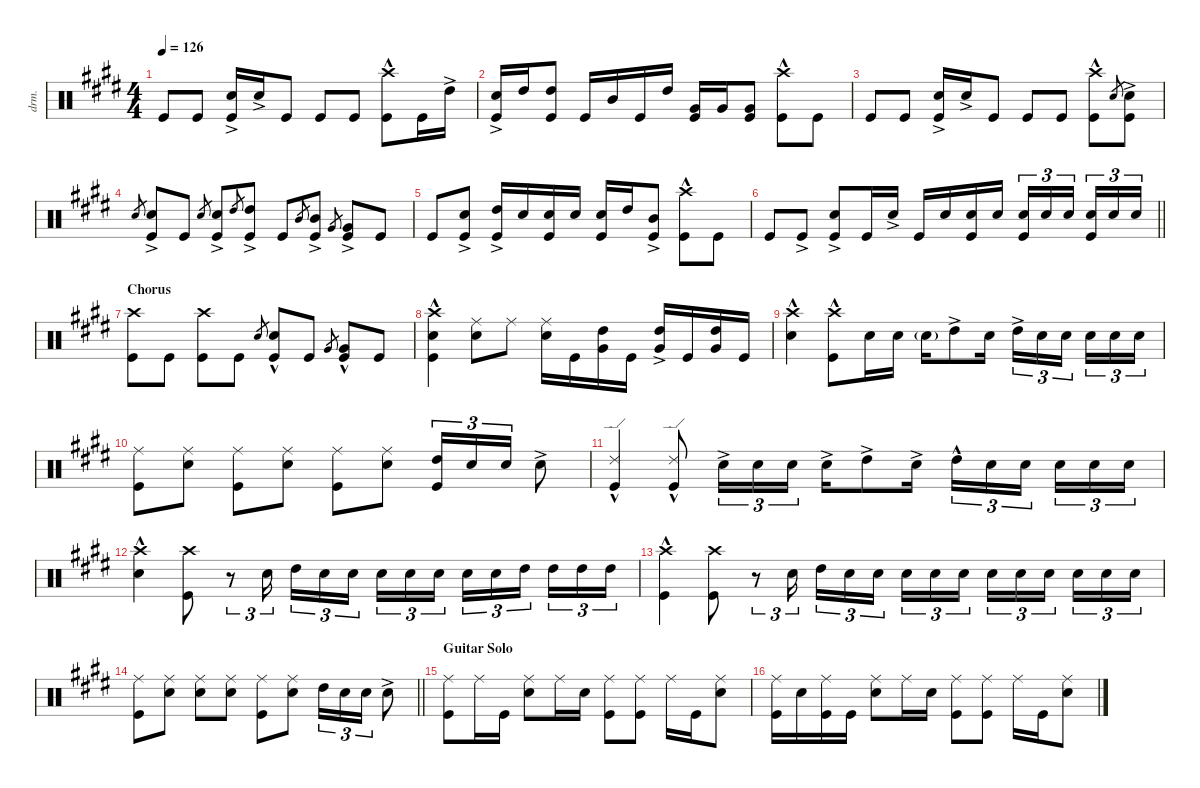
\defaultSystemsLayout 4
\hideDynamics
\bracketExtendMode nobrackets
\otherSystemsTrackNameOrientation horizontal
\track ("Mitch" "drm.") {instrument percussion}
\staff {score}
\articulation defaults
\ts (4 4)
\tempo 126
\clef neutral
\ks e "Kick (hit)"{acc forcenatural}.8{dy f beam Up} "Kick (hit)"{acc forcenatural}.8{beam Up}
("Snare (hit) 2"{ac acc forcenatural} "Kick (hit)"{acc forcenatural}).16{beam Up} "Snare (hit) 2"{ac acc forcenatural}.16{beam Up} "Kick (hit)"{acc forcenatural}.8{beam Up} "Kick (hit)"{acc forcenatural}.8{beam Up} "Kick (hit)"{acc forcenatural}.8{beam Up} ("Crash high (hit)"{hac acc forcenatural} "Kick (hit)"{acc forcenatural}).8{beam Down} "Kick (hit)"{acc forcenatural}.16{beam Down} "High Tom (hit)"{ac acc forcenatural}.16{beam Down} |
("Snare (hit) 2"{ac acc forcenatural} "Kick (hit)"{acc forcenatural}).16{beam Up} "High Tom (hit)"{acc forcenatural}.16{beam Up} ("High Tom (hit)"{acc forcenatural} "Kick (hit)"{acc forcenatural}).8{beam Up} "Kick (hit)"{acc forcenatural}.16{beam Up} "Mid Tom (hit)"{acc forcenatural}.16{beam Up} "Kick (hit)"{acc forcenatural}.16{beam Up} "High Tom (hit)"{acc forcenatural}.16{beam Up} ("Very Low Tom (hit)"{acc forcenatural} "Kick (hit)"{acc forcenatural}).16{beam Up} "Very Low Tom (hit)"{acc forcenatural}.16{beam Up} ("Very Low Tom (hit)"{acc forcenatural} "Kick (hit)"{acc forcenatural}).8{beam Up} ("Crash high (hit)"{hac acc forcenatural} "Kick (hit)"{acc forcenatural}).8{beam Down} "Kick (hit)"{acc forcenatural}.8{beam Down} |
"Kick (hit)"{acc forcenatural}.8{beam Up} "Kick (hit)"{acc forcenatural}.8{beam Up} ("Snare (hit) 2"{ac acc forcenatural} "Kick (hit)"{acc forcenatural}).16{beam Up} "Snare (hit) 2"{ac acc forcenatural}.16{beam Up} "Kick (hit)"{acc forcenatural}.8{beam Up} "Kick (hit)"{acc forcenatural}.8{beam Up} "Kick (hit)"{acc forcenatural}.8{beam Up} ("Crash high (hit)"{hac acc forcenatural} "Kick (hit)"{acc forcenatural}).8{beam Down} "Snare (hit) 2"{acc forcenatural}.8{gr beam Up} ("Snare (hit) 2"{ac acc forcenatural} "Kick (hit)"{acc forcenatural}).8{beam Down} |
"Snare (hit) 2"{acc forcenatural}.8{gr beam Up} ("Snare (hit) 2"{ac acc forcenatural} "Kick (hit)"{acc forcenatural}).8{beam Up} "Kick (hit)"{acc forcenatural}.8{beam Up} "Snare (hit) 2"{acc forcenatural}.8{gr beam Up} ("Snare (hit) 2"{ac acc forcenatural} "Kick (hit)"{acc forcenatural}).8{beam Up} "High Tom (hit)"{acc forcenatural}.8{gr beam Up} ("High Tom (hit)"{ac acc forcenatural} "Kick (hit)"{acc forcenatural}).8{beam Up} "Kick (hit)"{acc forcenatural}.8{beam Up} "Mid Tom (hit)"{acc forcenatural}.8{gr beam Up} ("Mid Tom (hit)"{ac acc forcenatural} "Kick (hit)"{acc forcenatural}).8{beam Up} "Very Low Tom (hit)"{acc forcenatural}.8{gr beam Up} ("Very Low Tom (hit)"{ac acc forcenatural} "Kick (hit)"{acc forcenatural}).8{beam Up} "Kick (hit)"{acc forcenatural}.8{beam Up} |
"Kick (hit)"{acc forcenatural}.8{beam Up} ("Snare (hit) 2"{ac acc forcenatural} "Kick (hit)"{acc forcenatural}).8{beam Up} ("High Tom (hit)"{ac acc forcenatural} "Kick (hit)"{acc forcenatural}).16{beam Up} "Snare (hit) 2"{acc forcenatural}.16{beam Up} ("Snare (hit) 2"{acc forcenatural} "Kick (hit)"{acc forcenatural}).16{beam Up} "Snare (hit) 2"{acc forcenatural}.16{beam Up} ("Snare (hit) 2"{acc forcenatural} "Kick (hit)"{acc forcenatural}).16{beam Up} "High Tom (hit)"{acc forcenatural}.16{beam Up} ("Mid Tom (hit)"{ac acc forcenatural} "Kick (hit)"{acc forcenatural}).8{beam Up} ("Crash high (hit)"{hac acc forcenatural} "Kick (hit)"{acc forcenatural}).8{beam Down} "Kick (hit)"{acc forcenatural}.8{beam Down} |
\barLineRight lightlight "Kick (hit)"{acc forcenatural}.8{beam Up} "Kick (hit)"{ac acc forcenatural}.8{beam Up}
("Snare (hit) 2"{ac acc forcenatural} "Kick (hit)"{acc forcenatural}).8{beam Up} "Kick (hit)"{acc forcenatural}.16{beam Up} "Snare (hit) 2"{ac acc forcenatural}.16{beam Up} "Kick (hit)"{acc forcenatural}.16{beam Up} "Snare (hit) 2"{acc forcenatural}.16{beam Up} ("Snare (hit) 2"{acc forcenatural} "Kick (hit)"{acc forcenatural}).16{beam Up} "Snare (hit) 2"{acc forcenatural}.16{beam Up} ("Snare (hit) 2"{acc forcenatural} "Kick (hit)"{acc forcenatural}).16{tu (3 2) beam Up} "Snare (hit) 2"{acc forcenatural}.16{tu (3 2) beam Up} "Snare (hit) 2"{acc forcenatural}.16{tu (3 2) beam Up} ("Snare (hit) 2"{acc forcenatural} "Kick (hit)"{acc forcenatural}).16{tu (3 2) beam Up} "Snare (hit) 2"{acc forcenatural}.16{tu (3 2) beam Up} "Snare (hit) 2"{acc forcenatural}.16{tu (3 2) beam Up} |
\section ("" "Chorus")
("Crash high (hit)"{acc forcenatural} "Kick (hit)"{acc forcenatural}).8{beam Down} "Kick (hit)"{acc forcenatural}.8{beam Down} ("Crash high (hit)"{acc forcenatural} "Kick (hit)"{acc forcenatural}).8{beam Down} "Kick (hit)"{acc forcenatural}.8{beam Down} "Snare (hit) 2"{acc forcenatural}.8{gr dy ff beam Up} ("Snare (hit) 2"{hac acc forcenatural} "Kick (hit)"{acc forcenatural}).8{dy f beam Up} "Kick (hit)"{acc forcenatural}.8{beam Up} "Very Low Tom (hit)"{acc forcenatural}.8{gr dy ff beam Up} ("Very Low Tom (hit)"{hac acc forcenatural} "Kick (hit)"{acc forcenatural}).8{beam Up} "Kick (hit)"{acc forcenatural}.8{beam Up} |
("Crash high (hit)"{hac acc forcenatural} "Snare (hit) 2"{acc forcenatural} "Kick (hit)"{acc forcenatural}).4{beam Down} ("Ride (middle)"{acc forcenatural} "Snare (hit) 2"{acc forcenatural}).8{beam Down} "Ride (middle)"{acc forcenatural}.8{beam Down} ("Ride (middle)"{acc forcenatural} "Snare (hit) 2"{acc forcenatural}).16{beam Down} "Kick (hit)"{acc forcenatural}.16{beam Down} ("High Tom (hit)"{acc forcenatural} "Very Low Tom (hit)"{acc forcenatural}).16{beam Down} "Kick (hit)"{acc forcenatural}.16{beam Down} ("High Tom (hit)"{ac acc forcenatural} "Very Low Tom (hit)"{acc forcenatural}).16{beam Up} "Kick (hit)"{acc forcenatural}.16{beam Up} ("High Tom (hit)"{acc forcenatural} "Very Low Tom (hit)"{acc forcenatural}).16{beam Up} "Kick (hit)"{acc forcenatural}.16{beam Up} |
("Crash high (hit)"{hac acc forcenatural} "Snare (hit) 2"{acc forcenatural}).4{beam Down} ("Crash high (hit)"{hac acc forcenatural} "Kick (hit)"{acc forcenatural}).8{beam Down} "Snare (hit) 2"{acc forcenatural}.16{beam Down} "Snare (hit) 2"{acc forcenatural}.16{beam Down} "Snare (hit) 2"{g acc forcenatural}.16{dy f beam Down} "High Tom (hit)"{ac acc forcenatural}.8{dy ff beam Down} "Snare (hit) 2"{acc forcenatural}.16{beam Down} "High Tom (hit)"{ac acc forcenatural}.16{tu (3 2) beam Down} "Snare (hit) 2"{acc forcenatural}.16{tu (3 2) beam Down} "Snare (hit) 2"{acc forcenatural}.16{tu (3 2) beam Down} "Snare (hit) 2"{acc forcenatural}.16{tu (3 2) beam Down} "Snare (hit) 2"{acc forcenatural}.16{tu (3 2) beam Down} "Snare (hit) 2"{acc forcenatural}.16{tu (3 2) beam Down} |
("Ride (middle)"{acc forcenatural} "Kick (hit)"{acc forcenatural}).8{beam Down} ("Ride (middle)"{acc forcenatural} "Snare (hit) 2"{acc forcenatural}).8{beam Down} ("Ride (middle)"{acc forcenatural} "Kick (hit)"{acc forcenatural}).8{beam Down} ("Ride (middle)"{acc forcenatural} "Snare (hit) 2"{acc forcenatural}).8{beam Down} ("Ride (middle)"{acc forcenatural} "Kick (hit)"{acc forcenatural}).8{beam Down} ("Ride (middle)"{acc forcenatural} "Snare (hit) 2"{acc forcenatural}).8{beam Down} ("High Tom (hit)"{acc forcenatural} "Kick (hit)"{acc forcenatural}).16{tu (3 2) beam Up} "Snare (hit) 2"{acc forcenatural}.16{tu (3 2) beam Up} "Snare (hit) 2"{acc forcenatural}.16{tu (3 2) beam Up} "Snare (hit) 2"{ac acc forcenatural}.8{beam Down} |
("Ride (edge) 2"{hac acc forcenatural} "Kick (hit)"{acc forcenatural}).4{beam Up} ("Ride (edge) 2"{hac acc forcenatural} "Kick (hit)"{acc forcenatural}).8{beam Up} "Snare (hit) 2"{ac acc forcenatural}.16{tu (3 2) beam Down} "Snare (hit) 2"{acc forcenatural}.16{tu (3 2) beam Down} "Snare (hit) 2"{acc forcenatural}.16{tu (3 2) beam Down} "Snare (hit) 2"{ac acc forcenatural}.16{beam Down} "High Tom (hit)"{ac acc forcenatural}.8{beam Down} "Snare (hit) 2"{ac acc forcenatural}.16{beam Down} "High Tom (hit)"{hac acc forcenatural}.16{tu (3 2) dy f beam Down} "Snare (hit) 2"{acc forcenatural}.16{tu (3 2) dy ff beam Down} "Snare (hit) 2"{acc forcenatural}.16{tu (3 2) beam Down} "Snare (hit) 2"{acc forcenatural}.16{tu (3 2) beam Down} "Snare (hit) 2"{acc forcenatural}.16{tu (3 2) beam Down} "Snare (hit) 2"{acc forcenatural}.16{tu (3 2) beam Down} |
("Crash high (hit)"{hac acc forcenatural} "Snare (hit) 2"{acc forcenatural}).4{beam Down} ("Crash high (hit)"{acc forcenatural} "Kick (hit)"{acc forcenatural}).8{beam Down} r.8{tu (3 2) beam Down} "Snare (hit) 2"{acc forcenatural}.16{tu (3 2) beam Down} "High Tom (hit)"{acc forcenatural}.16{tu (3 2) beam Down} "Snare (hit) 2"{acc forcenatural}.16{tu (3 2) beam Down} "Snare (hit) 2"{acc forcenatural}.16{tu (3 2) beam Down} "Snare (hit) 2"{acc forcenatural}.16{tu (3 2) beam Down} "Snare (hit) 2"{acc forcenatural}.16{tu (3 2) beam Down} "Snare (hit) 2"{acc forcenatural}.16{tu (3 2) beam Down} "Snare (hit) 2"{acc forcenatural}.16{tu (3 2) beam Down} "Snare (hit) 2"{acc forcenatural}.16{tu (3 2) beam Down} "High Tom (hit)"{acc forcenatural}.16{tu (3 2) beam Down} "High Tom (hit)"{acc forcenatural}.16{tu (3 2) beam Down} "High Tom (hit)"{acc forcenatural}.16{tu (3 2) beam Down} "High Tom (hit)"{acc forcenatural}.16{tu (3 2) beam Down} |
("Crash high (hit)"{hac acc forcenatural} "Kick (hit)"{acc forcenatural}).4{beam Down} ("Crash high (hit)"{acc forcenatural} "Kick (hit)"{acc forcenatural}).8{beam Down} r.8{tu (3 2) beam Down} "Snare (hit) 2"{acc forcenatural}.16{tu (3 2) beam Down} "High Tom (hit)"{acc forcenatural}.16{tu (3 2) beam Down} "Snare (hit) 2"{acc forcenatural}.16{tu (3 2) beam Down} "Snare (hit) 2"{acc forcenatural}.16{tu (3 2) beam Down} "Snare (hit) 2"{acc forcenatural}.16{tu (3 2) beam Down} "Snare (hit) 2"{acc forcenatural}.16{tu (3 2) beam Down} "Snare (hit) 2"{acc forcenatural}.16{tu (3 2) beam Down} "Snare (hit) 2"{acc forcenatural}.16{tu (3 2) beam Down} "Snare (hit) 2"{acc forcenatural}.16{tu (3 2) beam Down} "Snare (hit) 2"{acc forcenatural}.16{tu (3 2) beam Down} "Snare (hit) 2"{acc forcenatural}.16{tu (3 2) beam Down} "Snare (hit) 2"{acc forcenatural}.16{tu (3 2) beam Down} "Snare (hit) 2"{acc forcenatural}.16{tu (3 2) beam Down} |
\barLineRight lightlight
("Ride (middle)"{acc forcenatural} "Kick (hit)"{acc forcenatural}).8{beam Down} ("Ride (middle)"{acc forcenatural} "Snare (hit) 2"{acc forcenatural}).8{beam Down} ("Ride (middle)"{acc forcenatural} "Snare (hit) 2"{acc forcenatural}).8{beam Down} ("Ride (middle)"{acc forcenatural} "Snare (hit) 2"{acc forcenatural}).8{beam Down} ("Ride (middle)"{acc forcenatural} "Kick (hit)"{acc forcenatural}).8{beam Down} ("Ride (middle)"{acc forcenatural} "Snare (hit) 2"{acc forcenatural}).8{beam Down} "High Tom (hit)"{acc forcenatural}.16{tu (3 2) beam Down} "Snare (hit) 2"{acc forcenatural}.16{tu (3 2) beam Down} "Snare (hit) 2"{acc forcenatural}.16{tu (3 2) beam Down} "Snare (hit) 2"{ac acc forcenatural}.8{beam Down} |
\section ("" "Guitar Solo")
("Ride (middle)"{acc forcenatural} "Kick (hit)"{acc forcenatural}).8{beam Down} "Ride (middle)"{acc forcenatural}.16{beam Down} "Kick (hit)"{acc forcenatural}.16{beam Down} ("Ride (middle)"{acc forcenatural} "Snare (hit) 2"{acc forcenatural}).8{beam Down} "Ride (middle)"{acc forcenatural}.16{beam Down} "Snare (hit) 2"{acc forcenatural}.16{beam Down} ("Ride (middle)"{acc forcenatural} "Kick (hit)"{acc forcenatural}).8{beam Down} ("Ride (middle)"{acc forcenatural} "Kick (hit)"{acc forcenatural}).8{beam Down} "Ride (middle)"{acc forcenatural}.16{beam Down} "Kick (hit)"{acc forcenatural}.16{beam Down} ("Ride (middle)"{acc forcenatural} "Snare (hit) 2"{acc forcenatural}).8{beam Down} |
("Ride (middle)"{acc forcenatural} "Kick (hit)"{acc forcenatural}).16{beam Down} "Snare (hit) 2"{acc forcenatural}.16{beam Down} ("Ride (middle)"{acc forcenatural} "Kick (hit)"{acc forcenatural}).16{beam Down} "Kick (hit)"{acc forcenatural}.16{beam Down} ("Ride (middle)"{acc forcenatural} "Snare (hit) 2"{acc forcenatural}).8{beam Down} "Ride (middle)"{acc forcenatural}.16{beam Down} "Snare (hit) 2"{acc forcenatural}.16{beam Down} ("Ride (middle)"{acc forcenatural} "Kick (hit)"{acc forcenatural}).8{beam Down} ("Ride (middle)"{acc forcenatural} "Kick (hit)"{acc forcenatural}).8{beam Down} "Ride (middle)"{acc forcenatural}.16{beam Down} "Kick (hit)"{acc forcenatural}.16{beam Down} ("Ride (middle)"{acc forcenatural} "Snare (hit) 2"{acc forcenatural}).8{beam Down}
